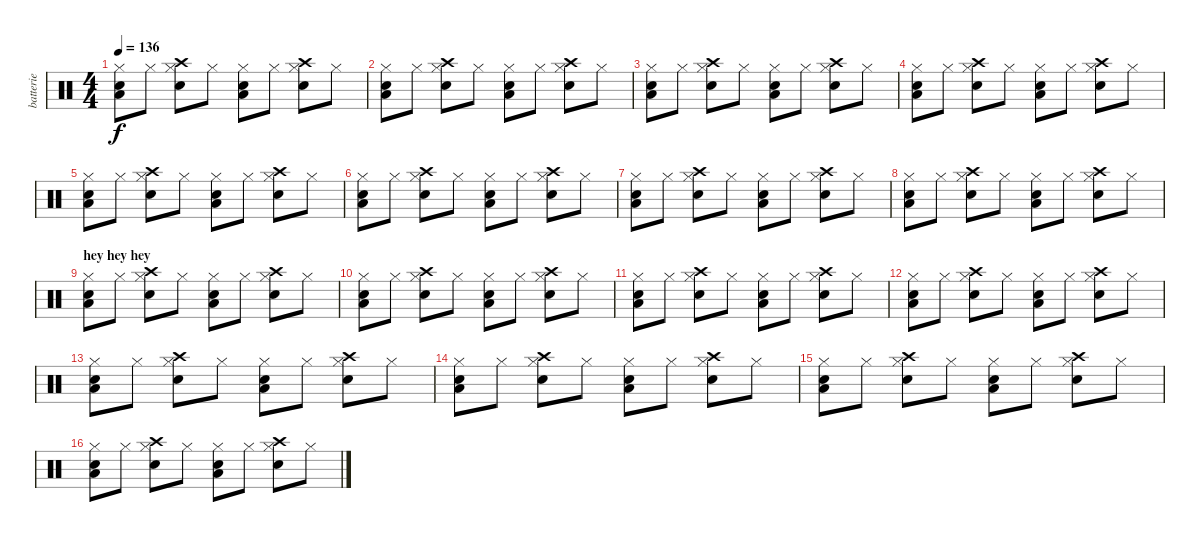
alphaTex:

\track ("batterie" "batterie") {instrument percussion}
\staff {score}
\articulation defaults
\ts (4 4)
\tempo 136
\clef neutral
\ks c
("Hi-Hat (closed)" "Snare (hit) 2" "Low Floor Tom (hit)").8{dy f} "Hi-Hat (closed)".8 ("Hi-Hat (closed)" "Crash high (hit)" "Electric Snare (hit)").8 "Hi-Hat (closed)".8 ("Hi-Hat (closed)" "Snare (hit) 2" "Low Floor Tom (hit)").8 "Hi-Hat (closed)".8 ("Hi-Hat (closed)" "Crash high (hit)" "Electric Snare (hit)").8 "Hi-Hat (closed)".8 |
("Hi-Hat (closed)" "Snare (hit) 2" "Low Floor Tom (hit)").8 "Hi-Hat (closed)".8 ("Hi-Hat (closed)" "Crash high (hit)" "Electric Snare (hit)").8 "Hi-Hat (closed)".8 ("Hi-Hat (closed)" "Snare (hit) 2" "Low Floor Tom (hit)").8 "Hi-Hat (closed)".8 ("Hi-Hat (closed)" "Crash high (hit)" "Electric Snare (hit)").8 "Hi-Hat (closed)".8 |
("Hi-Hat (closed)" "Snare (hit) 2" "Low Floor Tom (hit)").8 "Hi-Hat (closed)".8 ("Hi-Hat (closed)" "Crash high (hit)" "Electric Snare (hit)").8 "Hi-Hat (closed)".8 ("Hi-Hat (closed)" "Snare (hit) 2" "Low Floor Tom (hit)").8 "Hi-Hat (closed)".8 ("Hi-Hat (closed)" "Crash high (hit)" "Electric Snare (hit)").8 "Hi-Hat (closed)".8 |
("Hi-Hat (closed)" "Snare (hit) 2" "Low Floor Tom (hit)").8 "Hi-Hat (closed)".8 ("Hi-Hat (closed)" "Crash high (hit)" "Electric Snare (hit)").8 "Hi-Hat (closed)".8 ("Hi-Hat (closed)" "Snare (hit) 2" "Low Floor Tom (hit)").8 "Hi-Hat (closed)".8 ("Hi-Hat (closed)" "Crash high (hit)" "Electric Snare (hit)").8 "Hi-Hat (closed)".8 |
("Hi-Hat (closed)" "Snare (hit) 2" "Low Floor Tom (hit)").8 "Hi-Hat (closed)".8 ("Hi-Hat (closed)" "Crash high (hit)" "Electric Snare (hit)").8 "Hi-Hat (closed)".8 ("Hi-Hat (closed)" "Snare (hit) 2" "Low Floor Tom (hit)").8 "Hi-Hat (closed)".8 ("Hi-Hat (closed)" "Crash high (hit)" "Electric Snare (hit)").8 "Hi-Hat (closed)".8 |
("Hi-Hat (closed)" "Snare (hit) 2" "Low Floor Tom (hit)").8 "Hi-Hat (closed)".8 ("Hi-Hat (closed)" "Crash high (hit)" "Electric Snare (hit)").8 "Hi-Hat (closed)".8 ("Hi-Hat (closed)" "Snare (hit) 2" "Low Floor Tom (hit)").8 "Hi-Hat (closed)".8 ("Hi-Hat (closed)" "Crash high (hit)" "Electric Snare (hit)").8 "Hi-Hat (closed)".8 |
("Hi-Hat (closed)" "Snare (hit) 2" "Low Floor Tom (hit)").8 "Hi-Hat (closed)".8 ("Hi-Hat (closed)" "Crash high (hit)" "Electric Snare (hit)").8 "Hi-Hat (closed)".8 ("Hi-Hat (closed)" "Snare (hit) 2" "Low Floor Tom (hit)").8 "Hi-Hat (closed)".8 ("Hi-Hat (closed)" "Crash high (hit)" "Electric Snare (hit)").8 "Hi-Hat (closed)".8 |
("Hi-Hat (closed)" "Snare (hit) 2" "Low Floor Tom (hit)").8 "Hi-Hat (closed)".8 ("Hi-Hat (closed)" "Crash high (hit)" "Electric Snare (hit)").8 "Hi-Hat (closed)".8 ("Hi-Hat (closed)" "Snare (hit) 2" "Low Floor Tom (hit)").8 "Hi-Hat (closed)".8 ("Hi-Hat (closed)" "Crash high (hit)" "Electric Snare (hit)").8 "Hi-Hat (closed)".8 |
\section ("" "hey hey hey")
("Hi-Hat (closed)" "Snare (hit) 2" "Low Floor Tom (hit)").8 "Hi-Hat (closed)".8 ("Hi-Hat (closed)" "Crash high (hit)" "Electric Snare (hit)").8 "Hi-Hat (closed)".8 ("Hi-Hat (closed)" "Snare (hit) 2" "Low Floor Tom (hit)").8 "Hi-Hat (closed)".8 ("Hi-Hat (closed)" "Crash high (hit)" "Electric Snare (hit)").8 "Hi-Hat (closed)".8 |
("Hi-Hat (closed)" "Snare (hit) 2" "Low Floor Tom (hit)").8 "Hi-Hat (closed)".8 ("Hi-Hat (closed)" "Crash high (hit)" "Electric Snare (hit)").8 "Hi-Hat (closed)".8 ("Hi-Hat (closed)" "Snare (hit) 2" "Low Floor Tom (hit)").8 "Hi-Hat (closed)".8 ("Hi-Hat (closed)" "Crash high (hit)" "Electric Snare (hit)").8 "Hi-Hat (closed)".8 |
("Hi-Hat (closed)" "Snare (hit) 2" "Low Floor Tom (hit)").8 "Hi-Hat (closed)".8 ("Hi-Hat (closed)" "Crash high (hit)" "Electric Snare (hit)").8 "Hi-Hat (closed)".8 ("Hi-Hat (closed)" "Snare (hit) 2" "Low Floor Tom (hit)").8 "Hi-Hat (closed)".8 ("Hi-Hat (closed)" "Crash high (hit)" "Electric Snare (hit)").8 "Hi-Hat (closed)".8 |
("Hi-Hat (closed)" "Snare (hit) 2" "Low Floor Tom (hit)").8 "Hi-Hat (closed)".8 ("Hi-Hat (closed)" "Crash high (hit)" "Electric Snare (hit)").8 "Hi-Hat (closed)".8 ("Hi-Hat (closed)" "Snare (hit) 2" "Low Floor Tom (hit)").8 "Hi-Hat (closed)".8 ("Hi-Hat (closed)" "Crash high (hit)" "Electric Snare (hit)").8 "Hi-Hat (closed)".8 |
("Hi-Hat (closed)" "Snare (hit) 2" "Low Floor Tom (hit)").8 "Hi-Hat (closed)".8 ("Hi-Hat (closed)" "Crash high (hit)" "Electric Snare (hit)").8 "Hi-Hat (closed)".8 ("Hi-Hat (closed)" "Snare (hit) 2" "Low Floor Tom (hit)").8 "Hi-Hat (closed)".8 ("Hi-Hat (closed)" "Crash high (hit)" "Electric Snare (hit)").8 "Hi-Hat (closed)".8 |
("Hi-Hat (closed)" "Snare (hit) 2" "Low Floor Tom (hit)").8 "Hi-Hat (closed)".8 ("Hi-Hat (closed)" "Crash high (hit)" "Electric Snare (hit)").8 "Hi-Hat (closed)".8 ("Hi-Hat (closed)" "Snare (hit) 2" "Low Floor Tom (hit)").8 "Hi-Hat (closed)".8 ("Hi-Hat (closed)" "Crash high (hit)" "Electric Snare (hit)").8 "Hi-Hat (closed)".8 |
("Hi-Hat (closed)" "Snare (hit) 2" "Low Floor Tom (hit)").8 "Hi-Hat (closed)".8 ("Hi-Hat (closed)" "Crash high (hit)" "Electric Snare (hit)").8 "Hi-Hat (closed)".8 ("Hi-Hat (closed)" "Snare (hit) 2" "Low Floor Tom (hit)").8 "Hi-Hat (closed)".8 ("Hi-Hat (closed)" "Crash high (hit)" "Electric Snare (hit)").8 "Hi-Hat (closed)".8 |
("Hi-Hat (closed)" "Snare (hit) 2" "Low Floor Tom (hit)").8 "Hi-Hat (closed)".8 ("Hi-Hat (closed)" "Crash high (hit)" "Electric Snare (hit)").8 "Hi-Hat (closed)".8 ("Hi-Hat (closed)" "Snare (hit) 2" "Low Floor Tom (hit)").8 "Hi-Hat (closed)".8 ("Hi-Hat (closed)" "Crash high (hit)" "Electric Snare (hit)").8 "Hi-Hat (closed)".8
